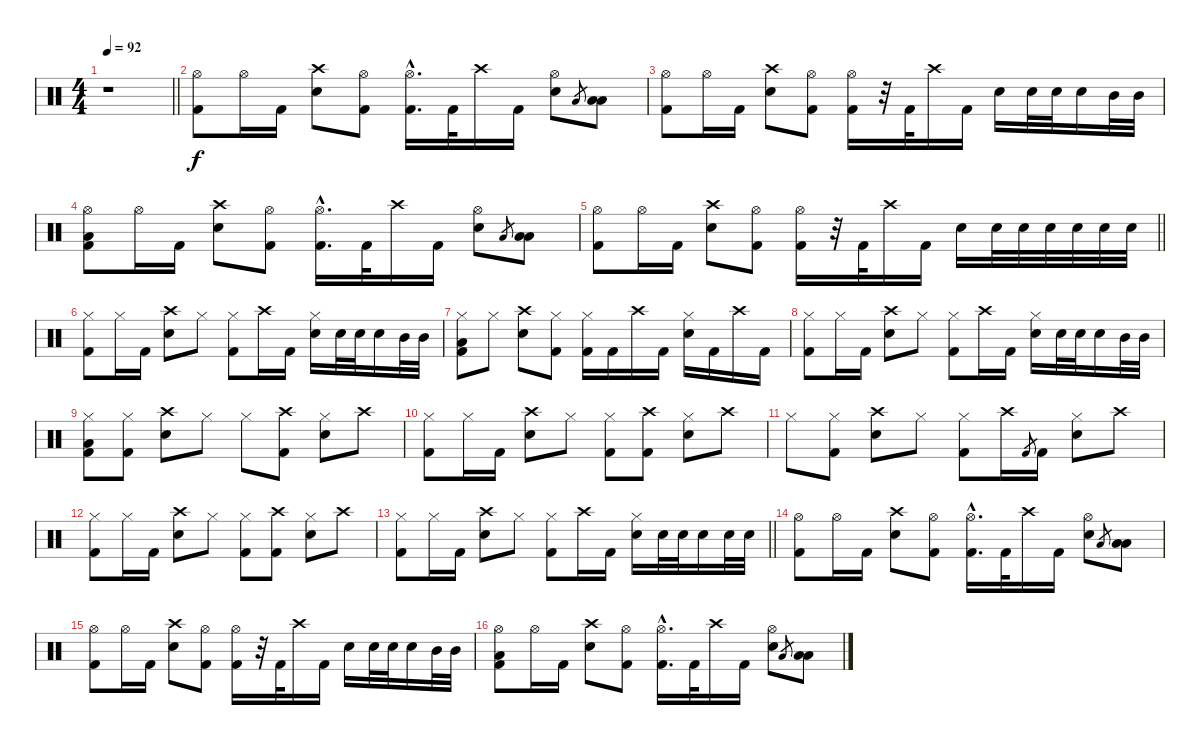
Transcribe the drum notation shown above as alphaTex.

\track "" {instrument percussion}
\staff {score}
\articulation defaults
\ts (4 4)
\tempo 92
\clef neutral
\barLineRight lightlight
\ks c
r.1{dy f} |
("Hi-Hat (open)" "Kick (hit) 2").8 "Hi-Hat (open)".16 "Kick (hit) 2".16 ("Crash high (hit)" "Electric Snare (hit)").8 ("Hi-Hat (open)" "Kick (hit) 2").8 ("Hi-Hat (open)"{hac} "Kick (hit) 2"{hac}).16{d} "Kick (hit) 2".32 "Crash high (hit)".16 "Kick (hit) 2".16 ("Hi-Hat (open)" "Electric Snare (hit)").8 "Low Tom (hit)".8{gr} ("Low Tom (hit)" "Low Tom (hit)").8 |
("Hi-Hat (open)" "Kick (hit) 2").8 "Hi-Hat (open)".16 "Kick (hit) 2".16 ("Crash high (hit)" "Electric Snare (hit)").8 ("Hi-Hat (open)" "Kick (hit) 2").8 ("Hi-Hat (open)" "Kick (hit) 2").16 r.32 "Kick (hit) 2".32 "Crash high (hit)".16 "Kick (hit) 2".16 "Electric Snare (hit)".16 "Electric Snare (hit)".32 "Electric Snare (hit)".32 "Electric Snare (hit)".16 "Mid Tom (hit)".32 "Mid Tom (hit)".32 |
("Hi-Hat (open)" "Low Tom (hit)" "Kick (hit) 2").8 "Hi-Hat (open)".16 "Kick (hit) 2".16 ("Crash high (hit)" "Electric Snare (hit)").8 ("Hi-Hat (open)" "Kick (hit) 2").8 ("Hi-Hat (open)"{hac} "Kick (hit) 2"{hac}).16{d} "Kick (hit) 2".32 "Crash high (hit)".16 "Kick (hit) 2".16 ("Hi-Hat (open)" "Electric Snare (hit)").8 "Low Tom (hit)".8{gr} ("Low Tom (hit)" "Low Tom (hit)").8 |
\barLineRight lightlight
("Hi-Hat (open)" "Kick (hit) 2").8 "Hi-Hat (open)".16 "Kick (hit) 2".16 ("Crash high (hit)" "Electric Snare (hit)").8 ("Hi-Hat (open)" "Kick (hit) 2").8 ("Hi-Hat (open)" "Kick (hit) 2").16 r.32 "Kick (hit) 2".32 "Crash high (hit)".16 "Kick (hit) 2".16 "Electric Snare (hit)".16 "Electric Snare (hit)".32 "Electric Snare (hit)".32 "Electric Snare (hit)".32 "Electric Snare (hit)".32 "Electric Snare (hit)".32 "Electric Snare (hit)".32 |
("Hi-Hat (closed)" "Kick (hit) 2").8 "Hi-Hat (closed)".16 "Kick (hit) 2".16 ("Crash high (hit)" "Electric Snare (hit)").8 "Hi-Hat (closed)".8 ("Hi-Hat (closed)" "Kick (hit) 2").8 "Crash high (hit)".16 "Kick (hit) 2".16 ("Hi-Hat (closed)" "Electric Snare (hit)").16 "Electric Snare (hit)".32 "Electric Snare (hit)".32 "Electric Snare (hit)".16 "Mid Tom (hit)".32 "Mid Tom (hit)".32 |
("Hi-Hat (closed)" "Low Tom (hit)" "Kick (hit) 2").8 "Hi-Hat (closed)".8 ("Crash high (hit)" "Electric Snare (hit)").8 ("Hi-Hat (closed)" "Kick (hit) 2").8 ("Hi-Hat (closed)" "Kick (hit) 2").16 "Kick (hit) 2".16 "Crash high (hit)".16 "Kick (hit) 2".16 ("Hi-Hat (closed)" "Electric Snare (hit)").16 "Kick (hit) 2".16 "Crash high (hit)".16 "Kick (hit) 2".16 |
("Hi-Hat (closed)" "Kick (hit) 2").8 "Hi-Hat (closed)".16 "Kick (hit) 2".16 ("Crash high (hit)" "Electric Snare (hit)").8 "Hi-Hat (closed)".8 ("Hi-Hat (closed)" "Kick (hit) 2").8 "Crash high (hit)".16 "Kick (hit) 2".16 ("Hi-Hat (closed)" "Electric Snare (hit)").16 "Electric Snare (hit)".32 "Electric Snare (hit)".32 "Electric Snare (hit)".16 "Mid Tom (hit)".32 "Mid Tom (hit)".32 |
("Hi-Hat (closed)" "Low Tom (hit)" "Kick (hit) 2").8 ("Hi-Hat (closed)" "Kick (hit) 2").8 ("Crash high (hit)" "Electric Snare (hit)").8 "Hi-Hat (closed)".8 "Hi-Hat (closed)".8 ("Crash high (hit)" "Kick (hit) 2").8 ("Hi-Hat (closed)" "Electric Snare (hit)").8 "Crash high (hit)".8 |
("Hi-Hat (closed)" "Kick (hit) 2").8 "Hi-Hat (closed)".16 "Kick (hit) 2".16 ("Crash high (hit)" "Electric Snare (hit)").8 "Hi-Hat (closed)".8 ("Hi-Hat (closed)" "Kick (hit) 2").8 ("Crash high (hit)" "Kick (hit) 2").8 ("Hi-Hat (closed)" "Electric Snare (hit)").8 "Crash high (hit)".8 |
"Hi-Hat (closed)".8 ("Hi-Hat (closed)" "Kick (hit) 2").8 ("Crash high (hit)" "Electric Snare (hit)").8 "Hi-Hat (closed)".8 ("Hi-Hat (closed)" "Kick (hit) 2").8 "Crash high (hit)".16 "Kick (hit) 2".8{gr} "Kick (hit) 2".16 ("Hi-Hat (closed)" "Electric Snare (hit)").8 "Crash high (hit)".8 |
("Hi-Hat (closed)" "Kick (hit) 2").8 "Hi-Hat (closed)".16 "Kick (hit) 2".16 ("Crash high (hit)" "Electric Snare (hit)").8 "Hi-Hat (closed)".8 ("Hi-Hat (closed)" "Kick (hit) 2").8 ("Crash high (hit)" "Kick (hit) 2").8 ("Hi-Hat (closed)" "Electric Snare (hit)").8 "Crash high (hit)".8 |
\barLineRight lightlight
("Hi-Hat (closed)" "Kick (hit) 2").8 "Hi-Hat (closed)".16 "Kick (hit) 2".16 ("Crash high (hit)" "Electric Snare (hit)").8 "Hi-Hat (closed)".8 ("Hi-Hat (closed)" "Kick (hit) 2").8 "Crash high (hit)".16 "Kick (hit) 2".16 ("Hi-Hat (closed)" "Electric Snare (hit)").16 "Electric Snare (hit)".32 "Electric Snare (hit)".32 "Electric Snare (hit)".16 "Electric Snare (hit)".32 "Electric Snare (hit)".32 |
("Hi-Hat (open)" "Kick (hit) 2").8 "Hi-Hat (open)".16 "Kick (hit) 2".16 ("Crash high (hit)" "Electric Snare (hit)").8 ("Hi-Hat (open)" "Kick (hit) 2").8 ("Hi-Hat (open)"{hac} "Kick (hit) 2"{hac}).16{d} "Kick (hit) 2".32 "Crash high (hit)".16 "Kick (hit) 2".16 ("Hi-Hat (open)" "Electric Snare (hit)").8 "Low Tom (hit)".8{gr} ("Low Tom (hit)" "Low Tom (hit)").8 |
("Hi-Hat (open)" "Kick (hit) 2").8 "Hi-Hat (open)".16 "Kick (hit) 2".16 ("Crash high (hit)" "Electric Snare (hit)").8 ("Hi-Hat (open)" "Kick (hit) 2").8 ("Hi-Hat (open)" "Kick (hit) 2").16 r.32 "Kick (hit) 2".32 "Crash high (hit)".16 "Kick (hit) 2".16 "Electric Snare (hit)".16 "Electric Snare (hit)".32 "Electric Snare (hit)".32 "Electric Snare (hit)".16 "Mid Tom (hit)".32 "Mid Tom (hit)".32 |
("Hi-Hat (open)" "Low Tom (hit)" "Kick (hit) 2").8 "Hi-Hat (open)".16 "Kick (hit) 2".16 ("Crash high (hit)" "Electric Snare (hit)").8 ("Hi-Hat (open)" "Kick (hit) 2").8 ("Hi-Hat (open)"{hac} "Kick (hit) 2"{hac}).16{d} "Kick (hit) 2".32 "Crash high (hit)".16 "Kick (hit) 2".16 ("Hi-Hat (open)" "Electric Snare (hit)").8 "Low Tom (hit)".8{gr} ("Low Tom (hit)" "Low Tom (hit)").8
